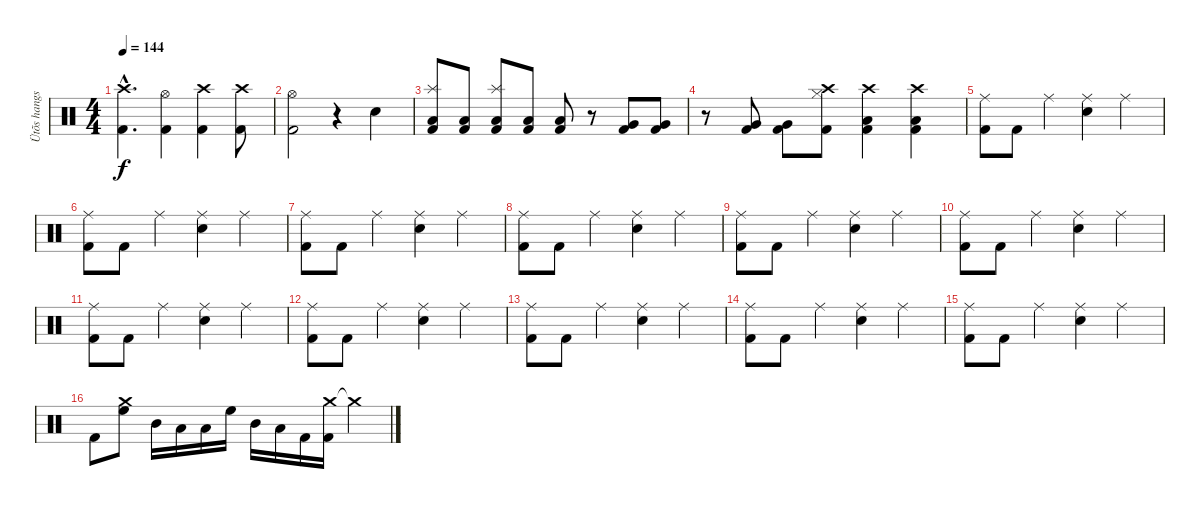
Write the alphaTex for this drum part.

\track ("Ütõs hangszer" "Ütõs hangs") {instrument percussion}
\staff {score}
\articulation defaults
\ts (4 4)
\tempo 144
\clef neutral
\ks c
("Crash high (hit)"{hac} "Kick (hit) 2"{hac}).4{d dy f} ("Hi-Hat (open)" "Kick (hit) 2").4 ("Crash high (hit)" "Kick (hit) 2").4 ("Crash high (hit)" "Kick (hit) 2").8 |
("Hi-Hat (open)" "Kick (hit) 2").2 r.4 "Snare (hit) 2".4 |
("Splash (hit)" "Low Floor Tom (hit)" "Kick (hit) 2").8 ("Low Floor Tom (hit)" "Kick (hit) 2").8 ("Splash (hit)" "Low Floor Tom (hit)" "Kick (hit) 2").8 ("Low Floor Tom (hit)" "Kick (hit) 2").8 ("Low Floor Tom (hit)" "Kick (hit) 2").8 r.8 ("Very Low Tom (hit)" "Kick (hit) 2").8 ("Very Low Tom (hit)" "Kick (hit) 2").8 |
r.8 ("Very Low Tom (hit)" "Kick (hit) 2").8 ("Very Low Tom (hit)" "Kick (hit) 2").8 ("Hi-Hat (closed)" "Crash high (hit)" "Kick (hit) 2").8 ("Crash high (hit)" "Low Floor Tom (hit)" "Kick (hit) 2").4 ("Crash high (hit)" "Low Floor Tom (hit)" "Kick (hit) 2").4 |
("Ride (middle)" "Kick (hit) 2").8 "Kick (hit) 2".8 "Ride (middle)".4 ("Ride (middle)" "Snare (hit) 2").4 "Ride (middle)".4 |
("Ride (middle)" "Kick (hit) 2").8 "Kick (hit) 2".8 "Ride (middle)".4 ("Ride (middle)" "Snare (hit) 2").4 "Ride (middle)".4 |
("Ride (middle)" "Kick (hit) 2").8 "Kick (hit) 2".8 "Ride (middle)".4 ("Ride (middle)" "Snare (hit) 2").4 "Ride (middle)".4 |
("Ride (middle)" "Kick (hit) 2").8 "Kick (hit) 2".8 "Ride (middle)".4 ("Ride (middle)" "Snare (hit) 2").4 "Ride (middle)".4 |
("Ride (middle)" "Kick (hit) 2").8 "Kick (hit) 2".8 "Ride (middle)".4 ("Ride (middle)" "Snare (hit) 2").4 "Ride (middle)".4 |
("Ride (middle)" "Kick (hit) 2").8 "Kick (hit) 2".8 "Ride (middle)".4 ("Ride (middle)" "Snare (hit) 2").4 "Ride (middle)".4 |
("Ride (middle)" "Kick (hit) 2").8 "Kick (hit) 2".8 "Ride (middle)".4 ("Ride (middle)" "Snare (hit) 2").4 "Ride (middle)".4 |
("Ride (middle)" "Kick (hit) 2").8 "Kick (hit) 2".8 "Ride (middle)".4 ("Ride (middle)" "Snare (hit) 2").4 "Ride (middle)".4 |
("Ride (middle)" "Kick (hit) 2").8 "Kick (hit) 2".8 "Ride (middle)".4 ("Ride (middle)" "Snare (hit) 2").4 "Ride (middle)".4 |
("Ride (middle)" "Kick (hit) 2").8 "Kick (hit) 2".8 "Ride (middle)".4 ("Ride (middle)" "Snare (hit) 2").4 "Ride (middle)".4 |
("Ride (middle)" "Kick (hit) 2").8 "Kick (hit) 2".8 "Ride (middle)".4 ("Ride (middle)" "Snare (hit) 2").4 "Ride (middle)".4 |
"Kick (hit) 2".8 ("Crash medium (hit)" "High Floor Tom (hit)").8 "Mid Tom (hit)".16 "Low Tom (hit)".16 "Low Floor Tom (hit)".16 "High Floor Tom (hit)".16 "Mid Tom (hit)".16 "Low Tom (hit)".16 "Kick (hit) 2".16 ("Crash medium (hit)" "Kick (hit) 2").16 "Crash medium (hit)"{t}.4
